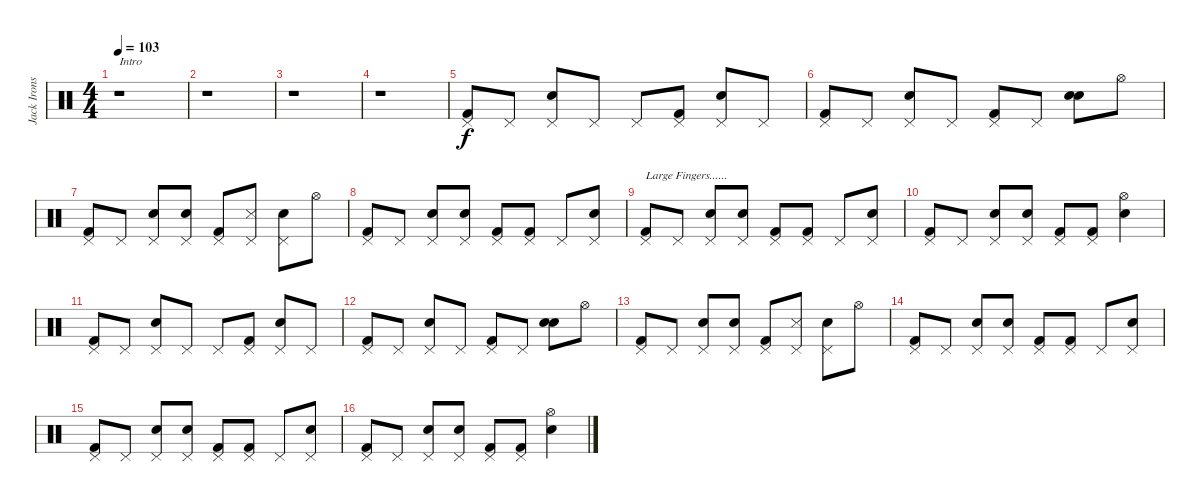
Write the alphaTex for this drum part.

\track ("Jack Irons" "Jack Irons") {instrument percussion}
\staff {score}
\articulation defaults
\ts (4 4)
\tempo 103
\clef neutral
\ks c
r.1{txt "Intro" dy f} |
r.1 |
r.1 |
r.1 |
("Pedal Hi-Hat (hit)" "Kick (hit) 2").8 "Pedal Hi-Hat (hit)".8 ("Pedal Hi-Hat (hit)" "Snare (hit) 2").8 "Pedal Hi-Hat (hit)".8 "Pedal Hi-Hat (hit)".8 ("Pedal Hi-Hat (hit)" "Kick (hit) 2").8 ("Pedal Hi-Hat (hit)" "Snare (hit) 2").8 "Pedal Hi-Hat (hit)".8 |
("Pedal Hi-Hat (hit)" "Kick (hit) 2").8 "Pedal Hi-Hat (hit)".8 ("Pedal Hi-Hat (hit)" "Snare (hit) 2").8 "Pedal Hi-Hat (hit)".8 ("Pedal Hi-Hat (hit)" "Kick (hit) 2").8 "Pedal Hi-Hat (hit)".8 ("Snare (hit) 2" "Snare (hit) 2").8 "Hi-Hat (open)".8 |
("Pedal Hi-Hat (hit)" "Kick (hit) 2").8 "Pedal Hi-Hat (hit)".8 ("Pedal Hi-Hat (hit)" "Snare (hit) 2").8 ("Pedal Hi-Hat (hit)" "Snare (hit) 2").8 ("Pedal Hi-Hat (hit)" "Kick (hit) 2").8 ("Pedal Hi-Hat (hit)" "Snare (side stick) 3").8 ("Pedal Hi-Hat (hit)" "Snare (hit) 2").8 "Hi-Hat (open)".8 |
("Pedal Hi-Hat (hit)" "Kick (hit) 2").8 "Pedal Hi-Hat (hit)".8 ("Pedal Hi-Hat (hit)" "Snare (hit) 2").8 ("Pedal Hi-Hat (hit)" "Snare (hit) 2").8 ("Pedal Hi-Hat (hit)" "Kick (hit) 2").8 ("Pedal Hi-Hat (hit)" "Kick (hit) 2").8 "Pedal Hi-Hat (hit)".8 ("Pedal Hi-Hat (hit)" "Snare (hit) 2").8 |
("Pedal Hi-Hat (hit)" "Kick (hit) 2").8{txt "Large Fingers......"} "Pedal Hi-Hat (hit)".8 ("Pedal Hi-Hat (hit)" "Snare (hit) 2").8 ("Pedal Hi-Hat (hit)" "Snare (hit) 2").8 ("Pedal Hi-Hat (hit)" "Kick (hit) 2").8 ("Pedal Hi-Hat (hit)" "Kick (hit) 2").8 "Pedal Hi-Hat (hit)".8 ("Pedal Hi-Hat (hit)" "Snare (hit) 2").8 |
("Pedal Hi-Hat (hit)" "Kick (hit) 2").8 "Pedal Hi-Hat (hit)".8 ("Pedal Hi-Hat (hit)" "Snare (hit) 2").8 ("Pedal Hi-Hat (hit)" "Snare (hit) 2").8 ("Pedal Hi-Hat (hit)" "Kick (hit) 2").8 ("Pedal Hi-Hat (hit)" "Kick (hit) 2").8 ("Hi-Hat (open)" "Snare (hit) 2").4 |
("Pedal Hi-Hat (hit)" "Kick (hit) 2").8 "Pedal Hi-Hat (hit)".8 ("Pedal Hi-Hat (hit)" "Snare (hit) 2").8 "Pedal Hi-Hat (hit)".8 "Pedal Hi-Hat (hit)".8 ("Pedal Hi-Hat (hit)" "Kick (hit) 2").8 ("Pedal Hi-Hat (hit)" "Snare (hit) 2").8 "Pedal Hi-Hat (hit)".8 |
("Pedal Hi-Hat (hit)" "Kick (hit) 2").8 "Pedal Hi-Hat (hit)".8 ("Pedal Hi-Hat (hit)" "Snare (hit) 2").8 "Pedal Hi-Hat (hit)".8 ("Pedal Hi-Hat (hit)" "Kick (hit) 2").8 "Pedal Hi-Hat (hit)".8 ("Snare (hit) 2" "Snare (hit) 2").8 "Hi-Hat (open)".8 |
("Pedal Hi-Hat (hit)" "Kick (hit) 2").8 "Pedal Hi-Hat (hit)".8 ("Pedal Hi-Hat (hit)" "Snare (hit) 2").8 ("Pedal Hi-Hat (hit)" "Snare (hit) 2").8 ("Pedal Hi-Hat (hit)" "Kick (hit) 2").8 ("Pedal Hi-Hat (hit)" "Snare (side stick) 3").8 ("Pedal Hi-Hat (hit)" "Snare (hit) 2").8 "Hi-Hat (open)".8 |
("Pedal Hi-Hat (hit)" "Kick (hit) 2").8 "Pedal Hi-Hat (hit)".8 ("Pedal Hi-Hat (hit)" "Snare (hit) 2").8 ("Pedal Hi-Hat (hit)" "Snare (hit) 2").8 ("Pedal Hi-Hat (hit)" "Kick (hit) 2").8 ("Pedal Hi-Hat (hit)" "Kick (hit) 2").8 "Pedal Hi-Hat (hit)".8 ("Pedal Hi-Hat (hit)" "Snare (hit) 2").8 |
("Pedal Hi-Hat (hit)" "Kick (hit) 2").8 "Pedal Hi-Hat (hit)".8 ("Pedal Hi-Hat (hit)" "Snare (hit) 2").8 ("Pedal Hi-Hat (hit)" "Snare (hit) 2").8 ("Pedal Hi-Hat (hit)" "Kick (hit) 2").8 ("Pedal Hi-Hat (hit)" "Kick (hit) 2").8 "Pedal Hi-Hat (hit)".8 ("Pedal Hi-Hat (hit)" "Snare (hit) 2").8 |
("Pedal Hi-Hat (hit)" "Kick (hit) 2").8 "Pedal Hi-Hat (hit)".8 ("Pedal Hi-Hat (hit)" "Snare (hit) 2").8 ("Pedal Hi-Hat (hit)" "Snare (hit) 2").8 ("Pedal Hi-Hat (hit)" "Kick (hit) 2").8 ("Pedal Hi-Hat (hit)" "Kick (hit) 2").8 ("Hi-Hat (open)" "Snare (hit) 2").4
